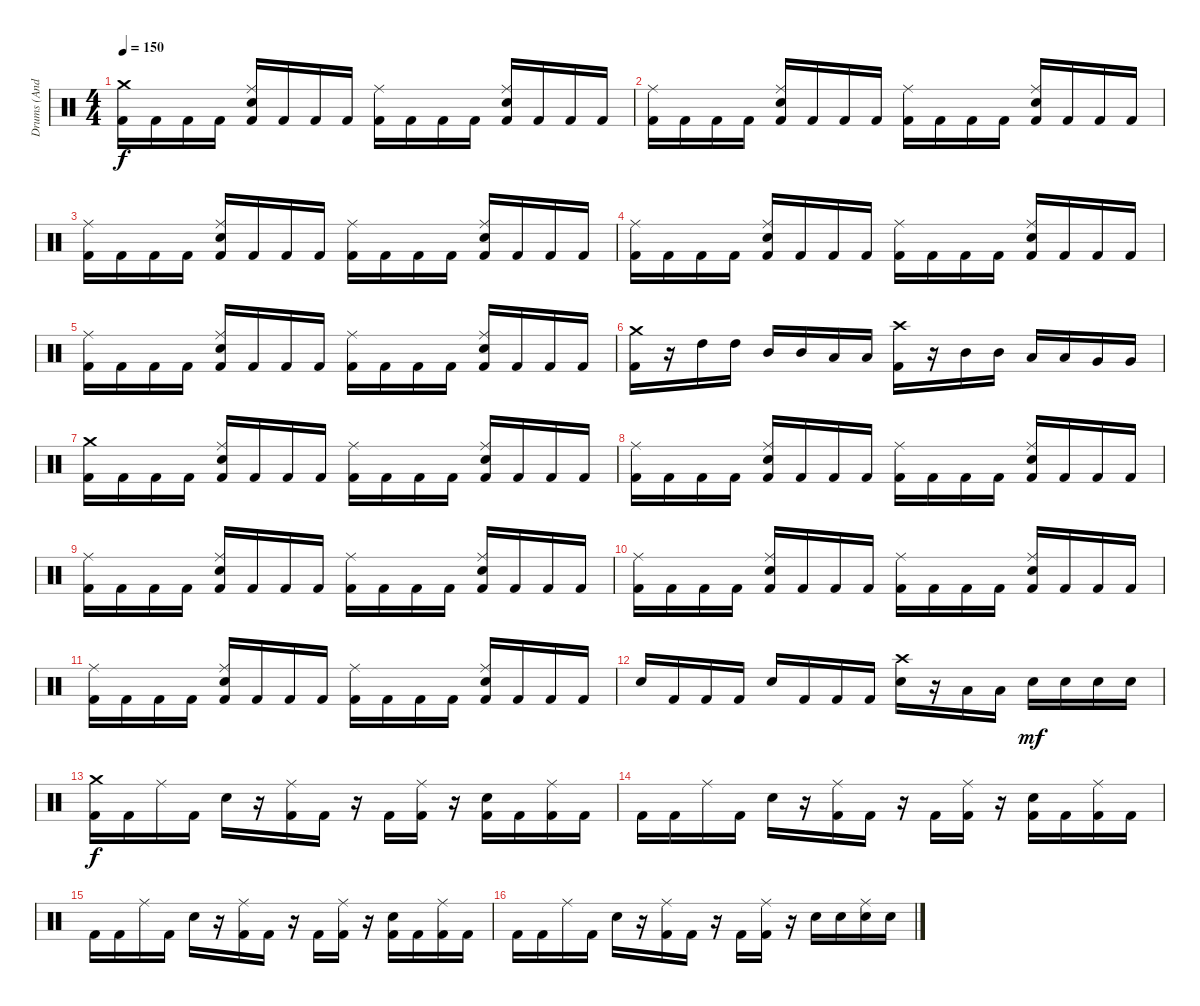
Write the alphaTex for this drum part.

\track ("Drums (Andy C)" "Drums (And") {instrument percussion}
\staff {score}
\articulation defaults
\ts (4 4)
\tempo 150
\clef neutral
\ks c
("Crash medium (hit)" "Kick (hit) 2").16{dy f} "Kick (hit) 2".16 "Kick (hit) 2".16 "Kick (hit) 2".16 ("Ride (middle)" "Kick (hit) 2" "Electric Snare (hit)").16 "Kick (hit) 2".16 "Kick (hit) 2".16 "Kick (hit) 2".16 ("Ride (middle)" "Kick (hit) 2").16 "Kick (hit) 2".16 "Kick (hit) 2".16 "Kick (hit) 2".16 ("Ride (middle)" "Kick (hit) 2" "Electric Snare (hit)").16 "Kick (hit) 2".16 "Kick (hit) 2".16 "Kick (hit) 2".16 |
("Ride (middle)" "Kick (hit) 2").16 "Kick (hit) 2".16 "Kick (hit) 2".16 "Kick (hit) 2".16 ("Ride (middle)" "Kick (hit) 2" "Electric Snare (hit)").16 "Kick (hit) 2".16 "Kick (hit) 2".16 "Kick (hit) 2".16 ("Ride (middle)" "Kick (hit) 2").16 "Kick (hit) 2".16 "Kick (hit) 2".16 "Kick (hit) 2".16 ("Ride (middle)" "Kick (hit) 2" "Electric Snare (hit)").16 "Kick (hit) 2".16 "Kick (hit) 2".16 "Kick (hit) 2".16 |
("Ride (middle)" "Kick (hit) 2").16 "Kick (hit) 2".16 "Kick (hit) 2".16 "Kick (hit) 2".16 ("Ride (middle)" "Kick (hit) 2" "Electric Snare (hit)").16 "Kick (hit) 2".16 "Kick (hit) 2".16 "Kick (hit) 2".16 ("Ride (middle)" "Kick (hit) 2").16 "Kick (hit) 2".16 "Kick (hit) 2".16 "Kick (hit) 2".16 ("Ride (middle)" "Kick (hit) 2" "Electric Snare (hit)").16 "Kick (hit) 2".16 "Kick (hit) 2".16 "Kick (hit) 2".16 |
("Ride (middle)" "Kick (hit) 2").16 "Kick (hit) 2".16 "Kick (hit) 2".16 "Kick (hit) 2".16 ("Ride (middle)" "Kick (hit) 2" "Electric Snare (hit)").16 "Kick (hit) 2".16 "Kick (hit) 2".16 "Kick (hit) 2".16 ("Ride (middle)" "Kick (hit) 2").16 "Kick (hit) 2".16 "Kick (hit) 2".16 "Kick (hit) 2".16 ("Ride (middle)" "Kick (hit) 2" "Electric Snare (hit)").16 "Kick (hit) 2".16 "Kick (hit) 2".16 "Kick (hit) 2".16 |
("Ride (middle)" "Kick (hit) 2").16 "Kick (hit) 2".16 "Kick (hit) 2".16 "Kick (hit) 2".16 ("Ride (middle)" "Kick (hit) 2" "Electric Snare (hit)").16 "Kick (hit) 2".16 "Kick (hit) 2".16 "Kick (hit) 2".16 ("Ride (middle)" "Kick (hit) 2").16 "Kick (hit) 2".16 "Kick (hit) 2".16 "Kick (hit) 2".16 ("Ride (middle)" "Kick (hit) 2" "Electric Snare (hit)").16 "Kick (hit) 2".16 "Kick (hit) 2".16 "Kick (hit) 2".16 |
("Crash medium (hit)" "Kick (hit) 2").16 r.16 "High Tom (hit)".16 "High Tom (hit)".16 "Mid Tom (hit)".16 "Mid Tom (hit)".16 "Low Tom (hit)".16 "Low Tom (hit)".16 ("Crash high (hit)" "Kick (hit) 2").16 r.16 "Mid Tom (hit)".16 "Mid Tom (hit)".16 "Low Tom (hit)".16 "Low Tom (hit)".16 "Very Low Tom (hit)".16 "Very Low Tom (hit)".16 |
("Crash medium (hit)" "Kick (hit) 2").16 "Kick (hit) 2".16 "Kick (hit) 2".16 "Kick (hit) 2".16 ("Ride (middle)" "Kick (hit) 2" "Electric Snare (hit)").16 "Kick (hit) 2".16 "Kick (hit) 2".16 "Kick (hit) 2".16 ("Ride (middle)" "Kick (hit) 2").16 "Kick (hit) 2".16 "Kick (hit) 2".16 "Kick (hit) 2".16 ("Ride (middle)" "Kick (hit) 2" "Electric Snare (hit)").16 "Kick (hit) 2".16 "Kick (hit) 2".16 "Kick (hit) 2".16 |
("Ride (middle)" "Kick (hit) 2").16 "Kick (hit) 2".16 "Kick (hit) 2".16 "Kick (hit) 2".16 ("Ride (middle)" "Kick (hit) 2" "Electric Snare (hit)").16 "Kick (hit) 2".16 "Kick (hit) 2".16 "Kick (hit) 2".16 ("Ride (middle)" "Kick (hit) 2").16 "Kick (hit) 2".16 "Kick (hit) 2".16 "Kick (hit) 2".16 ("Ride (middle)" "Kick (hit) 2" "Electric Snare (hit)").16 "Kick (hit) 2".16 "Kick (hit) 2".16 "Kick (hit) 2".16 |
("Ride (middle)" "Kick (hit) 2").16 "Kick (hit) 2".16 "Kick (hit) 2".16 "Kick (hit) 2".16 ("Ride (middle)" "Kick (hit) 2" "Electric Snare (hit)").16 "Kick (hit) 2".16 "Kick (hit) 2".16 "Kick (hit) 2".16 ("Ride (middle)" "Kick (hit) 2").16 "Kick (hit) 2".16 "Kick (hit) 2".16 "Kick (hit) 2".16 ("Ride (middle)" "Kick (hit) 2" "Electric Snare (hit)").16 "Kick (hit) 2".16 "Kick (hit) 2".16 "Kick (hit) 2".16 |
("Ride (middle)" "Kick (hit) 2").16 "Kick (hit) 2".16 "Kick (hit) 2".16 "Kick (hit) 2".16 ("Ride (middle)" "Kick (hit) 2" "Electric Snare (hit)").16 "Kick (hit) 2".16 "Kick (hit) 2".16 "Kick (hit) 2".16 ("Ride (middle)" "Kick (hit) 2").16 "Kick (hit) 2".16 "Kick (hit) 2".16 "Kick (hit) 2".16 ("Ride (middle)" "Kick (hit) 2" "Electric Snare (hit)").16 "Kick (hit) 2".16 "Kick (hit) 2".16 "Kick (hit) 2".16 |
("Ride (middle)" "Kick (hit) 2").16 "Kick (hit) 2".16 "Kick (hit) 2".16 "Kick (hit) 2".16 ("Ride (middle)" "Kick (hit) 2" "Electric Snare (hit)").16 "Kick (hit) 2".16 "Kick (hit) 2".16 "Kick (hit) 2".16 ("Ride (middle)" "Kick (hit) 2").16 "Kick (hit) 2".16 "Kick (hit) 2".16 "Kick (hit) 2".16 ("Ride (middle)" "Kick (hit) 2" "Electric Snare (hit)").16 "Kick (hit) 2".16 "Kick (hit) 2".16 "Kick (hit) 2".16 |
"Electric Snare (hit)".16 "Kick (hit) 2".16 "Kick (hit) 2".16 "Kick (hit) 2".16 "Electric Snare (hit)".16 "Kick (hit) 2".16 "Kick (hit) 2".16 "Kick (hit) 2".16 ("Crash high (hit)" "Electric Snare (hit)").16 r.16 "Low Tom (hit)".16 "Low Tom (hit)".16 "Electric Snare (hit)".16{dy mf} "Electric Snare (hit)".16 "Electric Snare (hit)".16 "Electric Snare (hit)".16 |
("Crash medium (hit)" "Kick (hit) 2").16{dy f} "Kick (hit) 2".16 "Ride (middle)".16 "Kick (hit) 2".16 "Electric Snare (hit)".16 r.16 ("Ride (middle)" "Kick (hit) 2").16 "Kick (hit) 2".16 r.16 "Kick (hit) 2".16 ("Ride (middle)" "Kick (hit) 2").16 r.16 ("Kick (hit) 2" "Electric Snare (hit)").16 "Kick (hit) 2".16 ("Ride (middle)" "Kick (hit) 2").16 "Kick (hit) 2".16 |
"Kick (hit) 2".16 "Kick (hit) 2".16 "Ride (middle)".16 "Kick (hit) 2".16 "Electric Snare (hit)".16 r.16 ("Ride (middle)" "Kick (hit) 2").16 "Kick (hit) 2".16 r.16 "Kick (hit) 2".16 ("Ride (middle)" "Kick (hit) 2").16 r.16 ("Kick (hit) 2" "Electric Snare (hit)").16 "Kick (hit) 2".16 ("Ride (middle)" "Kick (hit) 2").16 "Kick (hit) 2".16 |
"Kick (hit) 2".16 "Kick (hit) 2".16 "Ride (middle)".16 "Kick (hit) 2".16 "Electric Snare (hit)".16 r.16 ("Ride (middle)" "Kick (hit) 2").16 "Kick (hit) 2".16 r.16 "Kick (hit) 2".16 ("Ride (middle)" "Kick (hit) 2").16 r.16 ("Kick (hit) 2" "Electric Snare (hit)").16 "Kick (hit) 2".16 ("Ride (middle)" "Kick (hit) 2").16 "Kick (hit) 2".16 |
"Kick (hit) 2".16 "Kick (hit) 2".16 "Ride (middle)".16 "Kick (hit) 2".16 "Electric Snare (hit)".16 r.16 ("Ride (middle)" "Kick (hit) 2").16 "Kick (hit) 2".16 r.16 "Kick (hit) 2".16 ("Ride (middle)" "Kick (hit) 2").16 r.16 "Electric Snare (hit)".16 "Electric Snare (hit)".16 ("Ride (middle)" "Electric Snare (hit)").16 "Electric Snare (hit)".16
